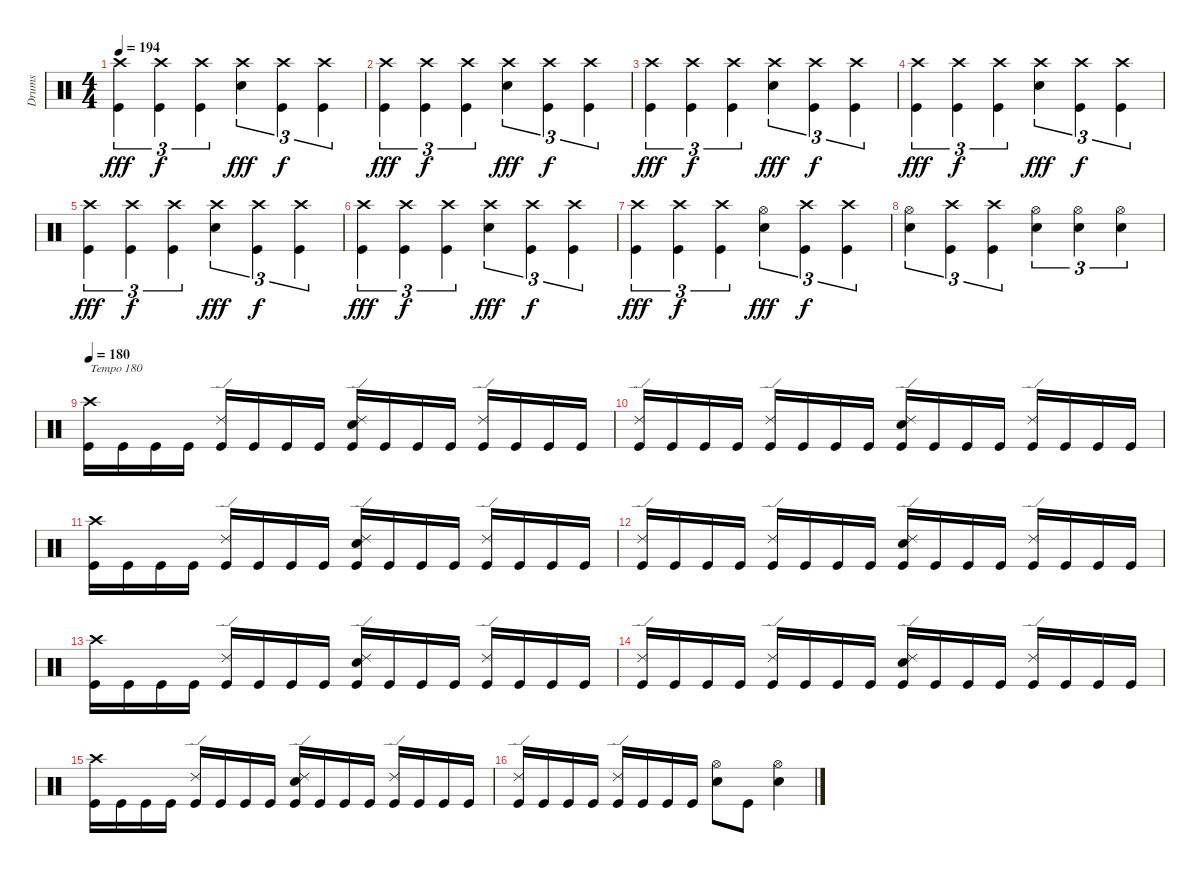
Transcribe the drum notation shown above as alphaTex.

\track ("Drums" "Drums") {instrument percussion}
\staff {score}
\articulation defaults
\ts (4 4)
\tempo 194
\clef neutral
\ks c
("Crash high (hit)" "Kick (hit)").4{tu (3 2) dy fff} ("Crash high (hit)" "Kick (hit)").4{tu (3 2) dy f} ("Crash high (hit)" "Kick (hit)").4{tu (3 2)} ("Crash high (hit)" "Electric Snare (hit)").4{tu (3 2) dy fff} ("Crash high (hit)" "Kick (hit)").4{tu (3 2) dy f} ("Crash high (hit)" "Kick (hit)").4{tu (3 2)} |
("Crash high (hit)" "Kick (hit)").4{tu (3 2) dy fff} ("Crash high (hit)" "Kick (hit)").4{tu (3 2) dy f} ("Crash high (hit)" "Kick (hit)").4{tu (3 2)} ("Crash high (hit)" "Electric Snare (hit)").4{tu (3 2) dy fff} ("Crash high (hit)" "Kick (hit)").4{tu (3 2) dy f} ("Crash high (hit)" "Kick (hit)").4{tu (3 2)} |
("Crash high (hit)" "Kick (hit)").4{tu (3 2) dy fff} ("Crash high (hit)" "Kick (hit)").4{tu (3 2) dy f} ("Crash high (hit)" "Kick (hit)").4{tu (3 2)} ("Crash high (hit)" "Electric Snare (hit)").4{tu (3 2) dy fff} ("Crash high (hit)" "Kick (hit)").4{tu (3 2) dy f} ("Crash high (hit)" "Kick (hit)").4{tu (3 2)} |
("Crash high (hit)" "Kick (hit)").4{tu (3 2) dy fff} ("Crash high (hit)" "Kick (hit)").4{tu (3 2) dy f} ("Crash high (hit)" "Kick (hit)").4{tu (3 2)} ("Crash high (hit)" "Electric Snare (hit)").4{tu (3 2) dy fff} ("Crash high (hit)" "Kick (hit)").4{tu (3 2) dy f} ("Crash high (hit)" "Kick (hit)").4{tu (3 2)} |
("Crash high (hit)" "Kick (hit)").4{tu (3 2) dy fff} ("Crash high (hit)" "Kick (hit)").4{tu (3 2) dy f} ("Crash high (hit)" "Kick (hit)").4{tu (3 2)} ("Crash high (hit)" "Electric Snare (hit)").4{tu (3 2) dy fff} ("Crash high (hit)" "Kick (hit)").4{tu (3 2) dy f} ("Crash high (hit)" "Kick (hit)").4{tu (3 2)} |
("Crash high (hit)" "Kick (hit)").4{tu (3 2) dy fff} ("Crash high (hit)" "Kick (hit)").4{tu (3 2) dy f} ("Crash high (hit)" "Kick (hit)").4{tu (3 2)} ("Crash high (hit)" "Electric Snare (hit)").4{tu (3 2) dy fff} ("Crash high (hit)" "Kick (hit)").4{tu (3 2) dy f} ("Crash high (hit)" "Kick (hit)").4{tu (3 2)} |
("Crash high (hit)" "Kick (hit)").4{tu (3 2) dy fff} ("Crash high (hit)" "Kick (hit)").4{tu (3 2) dy f} ("Crash high (hit)" "Kick (hit)").4{tu (3 2)} ("Hi-Hat (open)" "Electric Snare (hit)").4{tu (3 2) dy fff} ("Crash high (hit)" "Kick (hit)").4{tu (3 2) dy f} ("Crash high (hit)" "Kick (hit)").4{tu (3 2)} |
("Hi-Hat (open)" "Electric Snare (hit)").4{tu (3 2)} ("Crash high (hit)" "Kick (hit)").4{tu (3 2)} ("Crash high (hit)" "Kick (hit)").4{tu (3 2)} ("Hi-Hat (open)" "Electric Snare (hit)").4{tu (3 2)} ("Hi-Hat (open)" "Electric Snare (hit)").4{tu (3 2)} ("Hi-Hat (open)" "Electric Snare (hit)").4{tu (3 2)} |
\tempo 180
("Crash high (hit)" "Kick (hit)").16{txt "Tempo 180"} "Kick (hit)".16 "Kick (hit)".16 "Kick (hit)".16 ("Ride (edge) 2" "Kick (hit)").16 "Kick (hit)".16 "Kick (hit)".16 "Kick (hit)".16 ("Ride (edge) 2" "Electric Snare (hit)" "Kick (hit)").16 "Kick (hit)".16 "Kick (hit)".16 "Kick (hit)".16 ("Ride (edge) 2" "Kick (hit)").16 "Kick (hit)".16 "Kick (hit)".16 "Kick (hit)".16 |
("Ride (edge) 2" "Kick (hit)").16 "Kick (hit)".16 "Kick (hit)".16 "Kick (hit)".16 ("Ride (edge) 2" "Kick (hit)").16 "Kick (hit)".16 "Kick (hit)".16 "Kick (hit)".16 ("Ride (edge) 2" "Electric Snare (hit)" "Kick (hit)").16 "Kick (hit)".16 "Kick (hit)".16 "Kick (hit)".16 ("Ride (edge) 2" "Kick (hit)").16 "Kick (hit)".16 "Kick (hit)".16 "Kick (hit)".16 |
("Crash high (hit)" "Kick (hit)").16 "Kick (hit)".16 "Kick (hit)".16 "Kick (hit)".16 ("Ride (edge) 2" "Kick (hit)").16 "Kick (hit)".16 "Kick (hit)".16 "Kick (hit)".16 ("Ride (edge) 2" "Electric Snare (hit)" "Kick (hit)").16 "Kick (hit)".16 "Kick (hit)".16 "Kick (hit)".16 ("Ride (edge) 2" "Kick (hit)").16 "Kick (hit)".16 "Kick (hit)".16 "Kick (hit)".16 |
("Ride (edge) 2" "Kick (hit)").16 "Kick (hit)".16 "Kick (hit)".16 "Kick (hit)".16 ("Ride (edge) 2" "Kick (hit)").16 "Kick (hit)".16 "Kick (hit)".16 "Kick (hit)".16 ("Ride (edge) 2" "Electric Snare (hit)" "Kick (hit)").16 "Kick (hit)".16 "Kick (hit)".16 "Kick (hit)".16 ("Ride (edge) 2" "Kick (hit)").16 "Kick (hit)".16 "Kick (hit)".16 "Kick (hit)".16 |
("Crash high (hit)" "Kick (hit)").16 "Kick (hit)".16 "Kick (hit)".16 "Kick (hit)".16 ("Ride (edge) 2" "Kick (hit)").16 "Kick (hit)".16 "Kick (hit)".16 "Kick (hit)".16 ("Ride (edge) 2" "Electric Snare (hit)" "Kick (hit)").16 "Kick (hit)".16 "Kick (hit)".16 "Kick (hit)".16 ("Ride (edge) 2" "Kick (hit)").16 "Kick (hit)".16 "Kick (hit)".16 "Kick (hit)".16 |
("Ride (edge) 2" "Kick (hit)").16 "Kick (hit)".16 "Kick (hit)".16 "Kick (hit)".16 ("Ride (edge) 2" "Kick (hit)").16 "Kick (hit)".16 "Kick (hit)".16 "Kick (hit)".16 ("Ride (edge) 2" "Electric Snare (hit)" "Kick (hit)").16 "Kick (hit)".16 "Kick (hit)".16 "Kick (hit)".16 ("Ride (edge) 2" "Kick (hit)").16 "Kick (hit)".16 "Kick (hit)".16 "Kick (hit)".16 |
("Crash high (hit)" "Kick (hit)").16 "Kick (hit)".16 "Kick (hit)".16 "Kick (hit)".16 ("Ride (edge) 2" "Kick (hit)").16 "Kick (hit)".16 "Kick (hit)".16 "Kick (hit)".16 ("Ride (edge) 2" "Electric Snare (hit)" "Kick (hit)").16 "Kick (hit)".16 "Kick (hit)".16 "Kick (hit)".16 ("Ride (edge) 2" "Kick (hit)").16 "Kick (hit)".16 "Kick (hit)".16 "Kick (hit)".16 |
("Ride (edge) 2" "Kick (hit)").16 "Kick (hit)".16 "Kick (hit)".16 "Kick (hit)".16 ("Ride (edge) 2" "Kick (hit)").16 "Kick (hit)".16 "Kick (hit)".16 "Kick (hit)".16 ("Hi-Hat (open)" "Electric Snare (hit)").8 "Kick (hit)".8 ("Hi-Hat (open)" "Electric Snare (hit)").4
